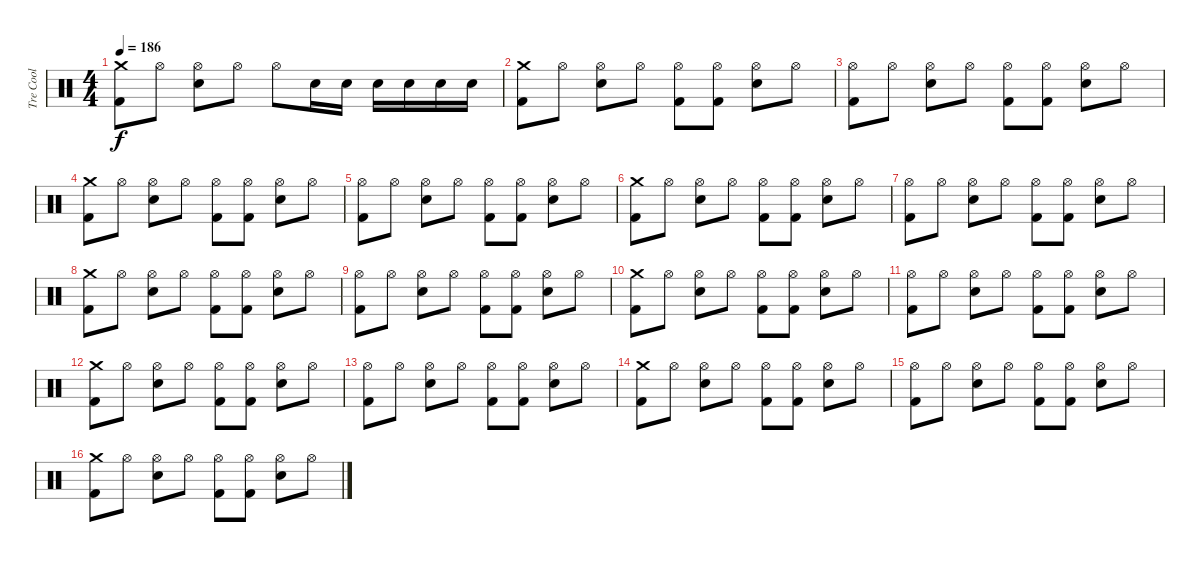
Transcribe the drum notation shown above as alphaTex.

\track ("Tre Cool" "Tre Cool") {instrument percussion}
\staff {score}
\articulation defaults
\ts (4 4)
\tempo 186
\clef neutral
\ks c
("Crash medium (hit)" "Kick (hit) 2").8{dy f} "Hi-Hat (open)".8 ("Hi-Hat (open)" "Snare (hit) 2").8 "Hi-Hat (open)".8 "Hi-Hat (open)".8 "Electric Snare (hit)".16 "Electric Snare (hit)".16 "Electric Snare (hit)".16 "Electric Snare (hit)".16 "Electric Snare (hit)".16 "Electric Snare (hit)".16 |
("Crash medium (hit)" "Kick (hit) 2").8 "Hi-Hat (open)".8 ("Hi-Hat (open)" "Snare (hit) 2").8 "Hi-Hat (open)".8 ("Hi-Hat (open)" "Kick (hit) 2").8 ("Hi-Hat (open)" "Kick (hit) 2").8 ("Hi-Hat (open)" "Snare (hit) 2").8 "Hi-Hat (open)".8 |
("Hi-Hat (open)" "Kick (hit) 2").8 "Hi-Hat (open)".8 ("Hi-Hat (open)" "Snare (hit) 2").8 "Hi-Hat (open)".8 ("Hi-Hat (open)" "Kick (hit) 2").8 ("Hi-Hat (open)" "Kick (hit) 2").8 ("Hi-Hat (open)" "Snare (hit) 2").8 "Hi-Hat (open)".8 |
("Crash medium (hit)" "Kick (hit) 2").8 "Hi-Hat (open)".8 ("Hi-Hat (open)" "Snare (hit) 2").8 "Hi-Hat (open)".8 ("Hi-Hat (open)" "Kick (hit) 2").8 ("Hi-Hat (open)" "Kick (hit) 2").8 ("Hi-Hat (open)" "Snare (hit) 2").8 "Hi-Hat (open)".8 |
("Hi-Hat (open)" "Kick (hit) 2").8 "Hi-Hat (open)".8 ("Hi-Hat (open)" "Snare (hit) 2").8 "Hi-Hat (open)".8 ("Hi-Hat (open)" "Kick (hit) 2").8 ("Hi-Hat (open)" "Kick (hit) 2").8 ("Hi-Hat (open)" "Snare (hit) 2").8 "Hi-Hat (open)".8 |
("Crash medium (hit)" "Kick (hit) 2").8 "Hi-Hat (open)".8 ("Hi-Hat (open)" "Snare (hit) 2").8 "Hi-Hat (open)".8 ("Hi-Hat (open)" "Kick (hit) 2").8 ("Hi-Hat (open)" "Kick (hit) 2").8 ("Hi-Hat (open)" "Snare (hit) 2").8 "Hi-Hat (open)".8 |
("Hi-Hat (open)" "Kick (hit) 2").8 "Hi-Hat (open)".8 ("Hi-Hat (open)" "Snare (hit) 2").8 "Hi-Hat (open)".8 ("Hi-Hat (open)" "Kick (hit) 2").8 ("Hi-Hat (open)" "Kick (hit) 2").8 ("Hi-Hat (open)" "Snare (hit) 2").8 "Hi-Hat (open)".8 |
("Crash medium (hit)" "Kick (hit) 2").8 "Hi-Hat (open)".8 ("Hi-Hat (open)" "Snare (hit) 2").8 "Hi-Hat (open)".8 ("Hi-Hat (open)" "Kick (hit) 2").8 ("Hi-Hat (open)" "Kick (hit) 2").8 ("Hi-Hat (open)" "Snare (hit) 2").8 "Hi-Hat (open)".8 |
("Hi-Hat (open)" "Kick (hit) 2").8 "Hi-Hat (open)".8 ("Hi-Hat (open)" "Snare (hit) 2").8 "Hi-Hat (open)".8 ("Hi-Hat (open)" "Kick (hit) 2").8 ("Hi-Hat (open)" "Kick (hit) 2").8 ("Hi-Hat (open)" "Snare (hit) 2").8 "Hi-Hat (open)".8 |
("Crash medium (hit)" "Kick (hit) 2").8 "Hi-Hat (open)".8 ("Hi-Hat (open)" "Snare (hit) 2").8 "Hi-Hat (open)".8 ("Hi-Hat (open)" "Kick (hit) 2").8 ("Hi-Hat (open)" "Kick (hit) 2").8 ("Hi-Hat (open)" "Snare (hit) 2").8 "Hi-Hat (open)".8 |
("Hi-Hat (open)" "Kick (hit) 2").8 "Hi-Hat (open)".8 ("Hi-Hat (open)" "Snare (hit) 2").8 "Hi-Hat (open)".8 ("Hi-Hat (open)" "Kick (hit) 2").8 ("Hi-Hat (open)" "Kick (hit) 2").8 ("Hi-Hat (open)" "Snare (hit) 2").8 "Hi-Hat (open)".8 |
("Crash medium (hit)" "Kick (hit) 2").8 "Hi-Hat (open)".8 ("Hi-Hat (open)" "Snare (hit) 2").8 "Hi-Hat (open)".8 ("Hi-Hat (open)" "Kick (hit) 2").8 ("Hi-Hat (open)" "Kick (hit) 2").8 ("Hi-Hat (open)" "Snare (hit) 2").8 "Hi-Hat (open)".8 |
("Hi-Hat (open)" "Kick (hit) 2").8 "Hi-Hat (open)".8 ("Hi-Hat (open)" "Snare (hit) 2").8 "Hi-Hat (open)".8 ("Hi-Hat (open)" "Kick (hit) 2").8 ("Hi-Hat (open)" "Kick (hit) 2").8 ("Hi-Hat (open)" "Snare (hit) 2").8 "Hi-Hat (open)".8 |
("Crash medium (hit)" "Kick (hit) 2").8 "Hi-Hat (open)".8 ("Hi-Hat (open)" "Snare (hit) 2").8 "Hi-Hat (open)".8 ("Hi-Hat (open)" "Kick (hit) 2").8 ("Hi-Hat (open)" "Kick (hit) 2").8 ("Hi-Hat (open)" "Snare (hit) 2").8 "Hi-Hat (open)".8 |
("Hi-Hat (open)" "Kick (hit) 2").8 "Hi-Hat (open)".8 ("Hi-Hat (open)" "Snare (hit) 2").8 "Hi-Hat (open)".8 ("Hi-Hat (open)" "Kick (hit) 2").8 ("Hi-Hat (open)" "Kick (hit) 2").8 ("Hi-Hat (open)" "Snare (hit) 2").8 "Hi-Hat (open)".8 |
("Crash medium (hit)" "Kick (hit) 2").8 "Hi-Hat (open)".8 ("Hi-Hat (open)" "Snare (hit) 2").8 "Hi-Hat (open)".8 ("Hi-Hat (open)" "Kick (hit) 2").8 ("Hi-Hat (open)" "Kick (hit) 2").8 ("Hi-Hat (open)" "Snare (hit) 2").8 "Hi-Hat (open)".8
